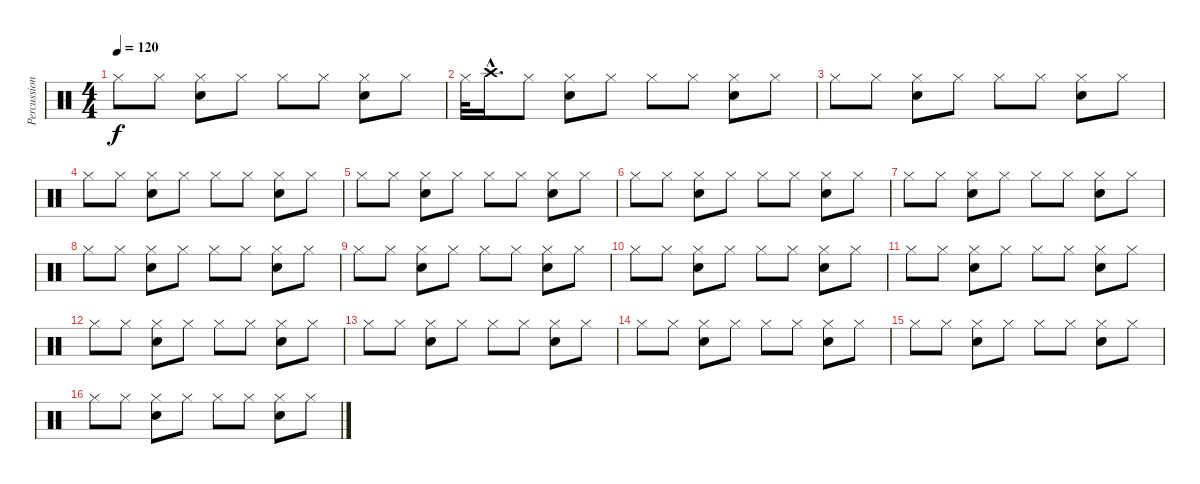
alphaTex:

\track ("Percussion      " "Percussion") {instrument percussion}
\staff {score}
\articulation defaults
\ts (4 4)
\tempo 120
\clef neutral
\ks c "Hi-Hat (closed)".8{dy f} "Hi-Hat (closed)".8
("Hi-Hat (closed)" "Snare (hit) 2").8 "Hi-Hat (closed)".8 "Hi-Hat (closed)".8 "Hi-Hat (closed)".8 ("Hi-Hat (closed)" "Snare (hit) 2").8 "Hi-Hat (closed)".8 |
"Hi-Hat (closed)".32 "Crash high (hit)"{hac}.16{d} "Hi-Hat (closed)".8 ("Hi-Hat (closed)" "Snare (hit) 2").8 "Hi-Hat (closed)".8 "Hi-Hat (closed)".8 "Hi-Hat (closed)".8 ("Hi-Hat (closed)" "Snare (hit) 2").8 "Hi-Hat (closed)".8 |
"Hi-Hat (closed)".8 "Hi-Hat (closed)".8 ("Hi-Hat (closed)" "Snare (hit) 2").8 "Hi-Hat (closed)".8 "Hi-Hat (closed)".8 "Hi-Hat (closed)".8 ("Hi-Hat (closed)" "Snare (hit) 2").8 "Hi-Hat (closed)".8 |
"Hi-Hat (closed)".8 "Hi-Hat (closed)".8 ("Hi-Hat (closed)" "Snare (hit) 2").8 "Hi-Hat (closed)".8 "Hi-Hat (closed)".8 "Hi-Hat (closed)".8 ("Hi-Hat (closed)" "Snare (hit) 2").8 "Hi-Hat (closed)".8 |
"Hi-Hat (closed)".8 "Hi-Hat (closed)".8 ("Hi-Hat (closed)" "Snare (hit) 2").8 "Hi-Hat (closed)".8 "Hi-Hat (closed)".8 "Hi-Hat (closed)".8 ("Hi-Hat (closed)" "Snare (hit) 2").8 "Hi-Hat (closed)".8 |
"Hi-Hat (closed)".8 "Hi-Hat (closed)".8 ("Hi-Hat (closed)" "Snare (hit) 2").8 "Hi-Hat (closed)".8 "Hi-Hat (closed)".8 "Hi-Hat (closed)".8 ("Hi-Hat (closed)" "Snare (hit) 2").8 "Hi-Hat (closed)".8 |
"Hi-Hat (closed)".8 "Hi-Hat (closed)".8 ("Hi-Hat (closed)" "Snare (hit) 2").8 "Hi-Hat (closed)".8 "Hi-Hat (closed)".8 "Hi-Hat (closed)".8 ("Hi-Hat (closed)" "Snare (hit) 2").8 "Hi-Hat (closed)".8 |
"Hi-Hat (closed)".8 "Hi-Hat (closed)".8 ("Hi-Hat (closed)" "Snare (hit) 2").8 "Hi-Hat (closed)".8 "Hi-Hat (closed)".8 "Hi-Hat (closed)".8 ("Hi-Hat (closed)" "Snare (hit) 2").8 "Hi-Hat (closed)".8 |
"Hi-Hat (closed)".8 "Hi-Hat (closed)".8 ("Hi-Hat (closed)" "Snare (hit) 2").8 "Hi-Hat (closed)".8 "Hi-Hat (closed)".8 "Hi-Hat (closed)".8 ("Hi-Hat (closed)" "Snare (hit) 2").8 "Hi-Hat (closed)".8 |
"Hi-Hat (closed)".8 "Hi-Hat (closed)".8 ("Hi-Hat (closed)" "Snare (hit) 2").8 "Hi-Hat (closed)".8 "Hi-Hat (closed)".8 "Hi-Hat (closed)".8 ("Hi-Hat (closed)" "Snare (hit) 2").8 "Hi-Hat (closed)".8 |
"Hi-Hat (closed)".8 "Hi-Hat (closed)".8 ("Hi-Hat (closed)" "Snare (hit) 2").8 "Hi-Hat (closed)".8 "Hi-Hat (closed)".8 "Hi-Hat (closed)".8 ("Hi-Hat (closed)" "Snare (hit) 2").8 "Hi-Hat (closed)".8 |
"Hi-Hat (closed)".8 "Hi-Hat (closed)".8 ("Hi-Hat (closed)" "Snare (hit) 2").8 "Hi-Hat (closed)".8 "Hi-Hat (closed)".8 "Hi-Hat (closed)".8 ("Hi-Hat (closed)" "Snare (hit) 2").8 "Hi-Hat (closed)".8 |
"Hi-Hat (closed)".8 "Hi-Hat (closed)".8 ("Hi-Hat (closed)" "Snare (hit) 2").8 "Hi-Hat (closed)".8 "Hi-Hat (closed)".8 "Hi-Hat (closed)".8 ("Hi-Hat (closed)" "Snare (hit) 2").8 "Hi-Hat (closed)".8 |
"Hi-Hat (closed)".8 "Hi-Hat (closed)".8 ("Hi-Hat (closed)" "Snare (hit) 2").8 "Hi-Hat (closed)".8 "Hi-Hat (closed)".8 "Hi-Hat (closed)".8 ("Hi-Hat (closed)" "Snare (hit) 2").8 "Hi-Hat (closed)".8 |
"Hi-Hat (closed)".8 "Hi-Hat (closed)".8 ("Hi-Hat (closed)" "Snare (hit) 2").8 "Hi-Hat (closed)".8 "Hi-Hat (closed)".8 "Hi-Hat (closed)".8 ("Hi-Hat (closed)" "Snare (hit) 2").8 "Hi-Hat (closed)".8 |
"Hi-Hat (closed)".8 "Hi-Hat (closed)".8 ("Hi-Hat (closed)" "Snare (hit) 2").8 "Hi-Hat (closed)".8 "Hi-Hat (closed)".8 "Hi-Hat (closed)".8 ("Hi-Hat (closed)" "Snare (hit) 2").8 "Hi-Hat (closed)".8
